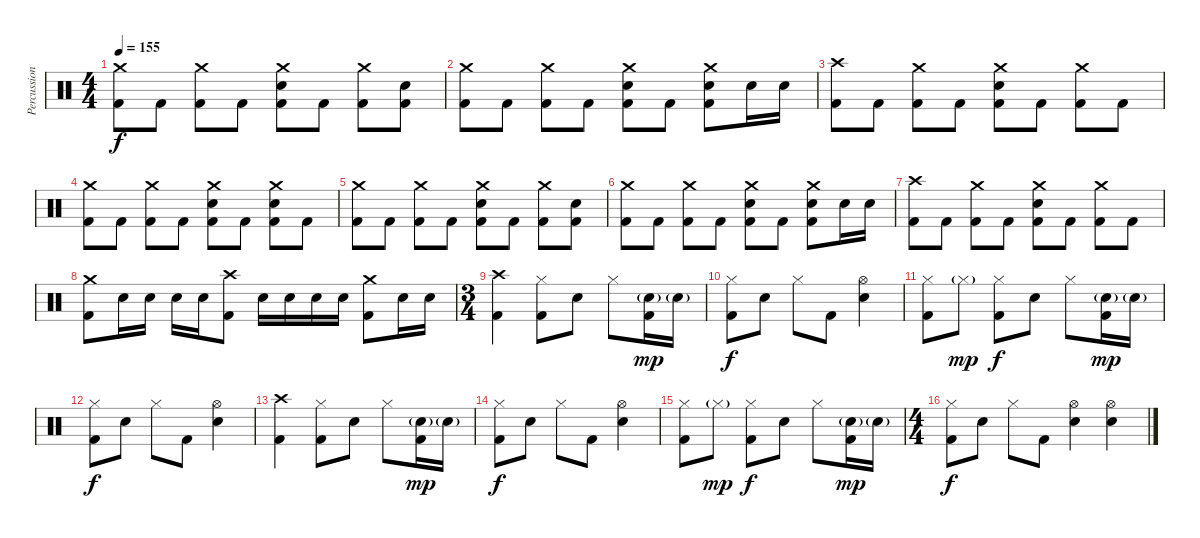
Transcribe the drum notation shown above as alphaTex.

\track ("Percussion" "Percussion") {instrument percussion}
\staff {score}
\articulation defaults
\ts (4 4)
\tempo 155
\clef neutral
\ks c
("Crash medium (hit)" "Kick (hit) 2").8{dy f} "Kick (hit) 2".8 ("Crash medium (hit)" "Kick (hit) 2").8 "Kick (hit) 2".8 ("Crash medium (hit)" "Electric Snare (hit)" "Kick (hit) 2").8 "Kick (hit) 2".8 ("Crash medium (hit)" "Kick (hit) 2").8 ("Electric Snare (hit)" "Kick (hit) 2").8 |
("Crash medium (hit)" "Kick (hit) 2").8 "Kick (hit) 2".8 ("Crash medium (hit)" "Kick (hit) 2").8 "Kick (hit) 2".8 ("Crash medium (hit)" "Electric Snare (hit)" "Kick (hit) 2").8 "Kick (hit) 2".8 ("Crash medium (hit)" "Electric Snare (hit)" "Kick (hit) 2").8 "Electric Snare (hit)".16 "Electric Snare (hit)".16 |
("Crash high (hit)" "Kick (hit) 2").8 "Kick (hit) 2".8 ("Crash medium (hit)" "Kick (hit) 2").8 "Kick (hit) 2".8 ("Crash medium (hit)" "Electric Snare (hit)" "Kick (hit) 2").8 "Kick (hit) 2".8 ("Crash medium (hit)" "Kick (hit) 2").8 "Kick (hit) 2".8 |
("Crash medium (hit)" "Kick (hit) 2").8 "Kick (hit) 2".8 ("Crash medium (hit)" "Kick (hit) 2").8 "Kick (hit) 2".8 ("Crash medium (hit)" "Electric Snare (hit)" "Kick (hit) 2").8 "Kick (hit) 2".8 ("Crash medium (hit)" "Electric Snare (hit)" "Kick (hit) 2").8 "Kick (hit) 2".8 |
("Crash medium (hit)" "Kick (hit) 2").8 "Kick (hit) 2".8 ("Crash medium (hit)" "Kick (hit) 2").8 "Kick (hit) 2".8 ("Crash medium (hit)" "Electric Snare (hit)" "Kick (hit) 2").8 "Kick (hit) 2".8 ("Crash medium (hit)" "Kick (hit) 2").8 ("Electric Snare (hit)" "Kick (hit) 2").8 |
("Crash medium (hit)" "Kick (hit) 2").8 "Kick (hit) 2".8 ("Crash medium (hit)" "Kick (hit) 2").8 "Kick (hit) 2".8 ("Crash medium (hit)" "Electric Snare (hit)" "Kick (hit) 2").8 "Kick (hit) 2".8 ("Crash medium (hit)" "Electric Snare (hit)" "Kick (hit) 2").8 "Electric Snare (hit)".16 "Electric Snare (hit)".16 |
("Crash high (hit)" "Kick (hit) 2").8 "Kick (hit) 2".8 ("Crash medium (hit)" "Kick (hit) 2").8 "Kick (hit) 2".8 ("Crash medium (hit)" "Electric Snare (hit)" "Kick (hit) 2").8 "Kick (hit) 2".8 ("Crash medium (hit)" "Kick (hit) 2").8 "Kick (hit) 2".8 |
("Crash medium (hit)" "Kick (hit) 2").8 "Electric Snare (hit)".16 "Electric Snare (hit)".16 "Electric Snare (hit)".16 "Electric Snare (hit)".16 ("Crash high (hit)" "Kick (hit) 2").8 "Electric Snare (hit)".16 "Electric Snare (hit)".16 "Electric Snare (hit)".16 "Electric Snare (hit)".16 ("Crash medium (hit)" "Kick (hit) 2").8 "Electric Snare (hit)".16 "Electric Snare (hit)".16 |
\ts (3 4)
("Crash high (hit)" "Kick (hit) 2").4 ("Hi-Hat (closed)" "Kick (hit) 2").8 "Electric Snare (hit)".8 "Hi-Hat (closed)".8 ("Electric Snare (hit)"{g} "Kick (hit) 2").16{dy mp} "Electric Snare (hit)"{g}.16 |
("Hi-Hat (closed)" "Kick (hit) 2").8{dy f} "Electric Snare (hit)".8 "Hi-Hat (closed)".8 "Kick (hit) 2".8 ("Hi-Hat (open)" "Electric Snare (hit)").4 |
("Hi-Hat (closed)" "Kick (hit) 2").8 "Hi-Hat (closed)"{g}.8{dy mp} ("Hi-Hat (closed)" "Kick (hit) 2").8{dy f} "Electric Snare (hit)".8 "Hi-Hat (closed)".8 ("Electric Snare (hit)"{g} "Kick (hit) 2").16{dy mp} "Electric Snare (hit)"{g}.16 |
("Hi-Hat (closed)" "Kick (hit) 2").8{dy f} "Electric Snare (hit)".8 "Hi-Hat (closed)".8 "Kick (hit) 2".8 ("Hi-Hat (open)" "Electric Snare (hit)").4 |
("Crash high (hit)" "Kick (hit) 2").4 ("Hi-Hat (closed)" "Kick (hit) 2").8 "Electric Snare (hit)".8 "Hi-Hat (closed)".8 ("Electric Snare (hit)"{g} "Kick (hit) 2").16{dy mp} "Electric Snare (hit)"{g}.16 |
("Hi-Hat (closed)" "Kick (hit) 2").8{dy f} "Electric Snare (hit)".8 "Hi-Hat (closed)".8 "Kick (hit) 2".8 ("Hi-Hat (open)" "Electric Snare (hit)").4 |
("Hi-Hat (closed)" "Kick (hit) 2").8 "Hi-Hat (closed)"{g}.8{dy mp} ("Hi-Hat (closed)" "Kick (hit) 2").8{dy f} "Electric Snare (hit)".8 "Hi-Hat (closed)".8 ("Electric Snare (hit)"{g} "Kick (hit) 2").16{dy mp} "Electric Snare (hit)"{g}.16 |
\ts (4 4)
("Hi-Hat (closed)" "Kick (hit) 2").8{dy f} "Electric Snare (hit)".8 "Hi-Hat (closed)".8 "Kick (hit) 2".8 ("Hi-Hat (open)" "Electric Snare (hit)").4 ("Hi-Hat (open)" "Electric Snare (hit)").4
